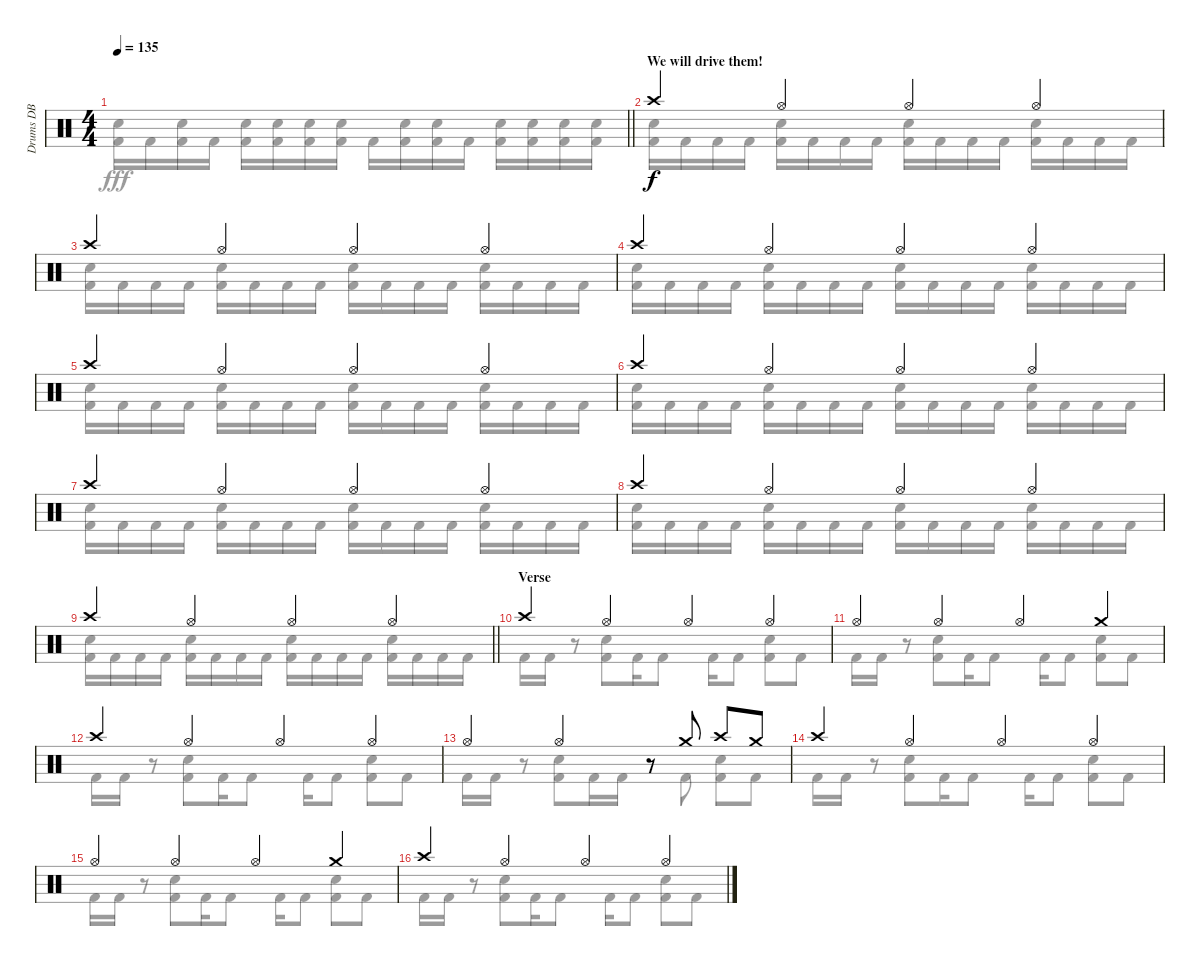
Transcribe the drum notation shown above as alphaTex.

\track ("Drums DB" "Drums DB") {instrument percussion}
\staff {score}
\articulation defaults
\voice
\ts (4 4)
\tempo 135
\clef neutral
\barLineRight lightlight
\ks aminor
|
\section ("" "We will drive them!")
"Crash high (hit)".4 "Hi-Hat (open)".4 "Hi-Hat (open)".4 "Hi-Hat (open)".4 |
"Crash high (hit)".4 "Hi-Hat (open)".4 "Hi-Hat (open)".4 "Hi-Hat (open)".4 |
"Crash high (hit)".4 "Hi-Hat (open)".4 "Hi-Hat (open)".4 "Hi-Hat (open)".4 |
"Crash high (hit)".4 "Hi-Hat (open)".4 "Hi-Hat (open)".4 "Hi-Hat (open)".4 |
"Crash high (hit)".4 "Hi-Hat (open)".4 "Hi-Hat (open)".4 "Hi-Hat (open)".4 |
"Crash high (hit)".4 "Hi-Hat (open)".4 "Hi-Hat (open)".4 "Hi-Hat (open)".4 |
"Crash high (hit)".4 "Hi-Hat (open)".4 "Hi-Hat (open)".4 "Hi-Hat (open)".4 |
\barLineRight lightlight "Crash high (hit)".4 "Hi-Hat (open)".4 "Hi-Hat (open)".4 "Hi-Hat (open)".4
|
\section ("" "Verse")
"Crash high (hit)".4 "Hi-Hat (open)".4 "Hi-Hat (open)".4 "Hi-Hat (open)".4 |
"Hi-Hat (open)".4 "Hi-Hat (open)".4 "Hi-Hat (open)".4 "Crash medium (hit)".4 |
"Crash high (hit)".4 "Hi-Hat (open)".4 "Hi-Hat (open)".4 "Hi-Hat (open)".4 |
"Hi-Hat (open)".4 "Hi-Hat (open)".4 r.8 "Crash medium (hit)".8 "Crash high (hit)".8 "Crash medium (hit)".8 |
"Crash high (hit)".4 "Hi-Hat (open)".4 "Hi-Hat (open)".4 "Hi-Hat (open)".4 |
"Hi-Hat (open)".4 "Hi-Hat (open)".4 "Hi-Hat (open)".4 "Crash medium (hit)".4 |
"Crash high (hit)".4 "Hi-Hat (open)".4 "Hi-Hat (open)".4 "Hi-Hat (open)".4
\voice
\clef neutral
\ottava regular
\simile none
\barLineRight lightlight
\ks aminor
("Snare (hit) 2" "Kick (hit) 2").16{dy fff} "Kick (hit) 2".16 ("Snare (hit) 2" "Kick (hit) 2").16 "Kick (hit) 2".16 ("Snare (hit) 2" "Kick (hit) 2").16 ("Snare (hit) 2" "Kick (hit) 2").16 ("Snare (hit) 2" "Kick (hit) 2").16 ("Snare (hit) 2" "Kick (hit) 2").16 "Kick (hit) 2".16 ("Snare (hit) 2" "Kick (hit) 2").16 ("Snare (hit) 2" "Kick (hit) 2").16 "Kick (hit) 2".16 ("Snare (hit) 2" "Kick (hit) 2").16 ("Snare (hit) 2" "Kick (hit) 2").16 ("Snare (hit) 2" "Kick (hit) 2").16 ("Snare (hit) 2" "Kick (hit) 2").16 |
("Snare (hit) 2" "Kick (hit) 2").16 "Kick (hit) 2".16 "Kick (hit) 2".16 "Kick (hit) 2".16 ("Snare (hit) 2" "Kick (hit) 2").16 "Kick (hit) 2".16 "Kick (hit) 2".16 "Kick (hit) 2".16 ("Snare (hit) 2" "Kick (hit) 2").16 "Kick (hit) 2".16 "Kick (hit) 2".16 "Kick (hit) 2".16 ("Snare (hit) 2" "Kick (hit) 2").16 "Kick (hit) 2".16 "Kick (hit) 2".16 "Kick (hit) 2".16 |
("Snare (hit) 2" "Kick (hit) 2").16 "Kick (hit) 2".16 "Kick (hit) 2".16 "Kick (hit) 2".16 ("Snare (hit) 2" "Kick (hit) 2").16 "Kick (hit) 2".16 "Kick (hit) 2".16 "Kick (hit) 2".16 ("Snare (hit) 2" "Kick (hit) 2").16 "Kick (hit) 2".16 "Kick (hit) 2".16 "Kick (hit) 2".16 ("Snare (hit) 2" "Kick (hit) 2").16 "Kick (hit) 2".16 "Kick (hit) 2".16 "Kick (hit) 2".16 |
("Snare (hit) 2" "Kick (hit) 2").16 "Kick (hit) 2".16 "Kick (hit) 2".16 "Kick (hit) 2".16 ("Snare (hit) 2" "Kick (hit) 2").16 "Kick (hit) 2".16 "Kick (hit) 2".16 "Kick (hit) 2".16 ("Snare (hit) 2" "Kick (hit) 2").16 "Kick (hit) 2".16 "Kick (hit) 2".16 "Kick (hit) 2".16 ("Snare (hit) 2" "Kick (hit) 2").16 "Kick (hit) 2".16 "Kick (hit) 2".16 "Kick (hit) 2".16 |
("Snare (hit) 2" "Kick (hit) 2").16 "Kick (hit) 2".16 "Kick (hit) 2".16 "Kick (hit) 2".16 ("Snare (hit) 2" "Kick (hit) 2").16 "Kick (hit) 2".16 "Kick (hit) 2".16 "Kick (hit) 2".16 ("Snare (hit) 2" "Kick (hit) 2").16 "Kick (hit) 2".16 "Kick (hit) 2".16 "Kick (hit) 2".16 ("Snare (hit) 2" "Kick (hit) 2").16 "Kick (hit) 2".16 "Kick (hit) 2".16 "Kick (hit) 2".16 |
("Snare (hit) 2" "Kick (hit) 2").16 "Kick (hit) 2".16 "Kick (hit) 2".16 "Kick (hit) 2".16 ("Snare (hit) 2" "Kick (hit) 2").16 "Kick (hit) 2".16 "Kick (hit) 2".16 "Kick (hit) 2".16 ("Snare (hit) 2" "Kick (hit) 2").16 "Kick (hit) 2".16 "Kick (hit) 2".16 "Kick (hit) 2".16 ("Snare (hit) 2" "Kick (hit) 2").16 "Kick (hit) 2".16 "Kick (hit) 2".16 "Kick (hit) 2".16 |
("Snare (hit) 2" "Kick (hit) 2").16 "Kick (hit) 2".16 "Kick (hit) 2".16 "Kick (hit) 2".16 ("Snare (hit) 2" "Kick (hit) 2").16 "Kick (hit) 2".16 "Kick (hit) 2".16 "Kick (hit) 2".16 ("Snare (hit) 2" "Kick (hit) 2").16 "Kick (hit) 2".16 "Kick (hit) 2".16 "Kick (hit) 2".16 ("Snare (hit) 2" "Kick (hit) 2").16 "Kick (hit) 2".16 "Kick (hit) 2".16 "Kick (hit) 2".16 |
("Snare (hit) 2" "Kick (hit) 2").16 "Kick (hit) 2".16 "Kick (hit) 2".16 "Kick (hit) 2".16 ("Snare (hit) 2" "Kick (hit) 2").16 "Kick (hit) 2".16 "Kick (hit) 2".16 "Kick (hit) 2".16 ("Snare (hit) 2" "Kick (hit) 2").16 "Kick (hit) 2".16 "Kick (hit) 2".16 "Kick (hit) 2".16 ("Snare (hit) 2" "Kick (hit) 2").16 "Kick (hit) 2".16 "Kick (hit) 2".16 "Kick (hit) 2".16 |
\barLineRight lightlight
("Snare (hit) 2" "Kick (hit) 2").16 "Kick (hit) 2".16 "Kick (hit) 2".16 "Kick (hit) 2".16 ("Snare (hit) 2" "Kick (hit) 2").16 "Kick (hit) 2".16 "Kick (hit) 2".16 "Kick (hit) 2".16 ("Snare (hit) 2" "Kick (hit) 2").16 "Kick (hit) 2".16 "Kick (hit) 2".16 "Kick (hit) 2".16 ("Snare (hit) 2" "Kick (hit) 2").16 "Kick (hit) 2".16 "Kick (hit) 2".16 "Kick (hit) 2".16 |
"Kick (hit) 2".16 "Kick (hit) 2".16 r.8 ("Snare (hit) 2" "Kick (hit) 2").8 "Kick (hit) 2".16 "Kick (hit) 2".8 "Kick (hit) 2".16 "Kick (hit) 2".8 ("Snare (hit) 2" "Kick (hit) 2").8 "Kick (hit) 2".8 |
"Kick (hit) 2".16 "Kick (hit) 2".16 r.8 ("Snare (hit) 2" "Kick (hit) 2").8 "Kick (hit) 2".16 "Kick (hit) 2".8 "Kick (hit) 2".16 "Kick (hit) 2".8 ("Snare (hit) 2" "Kick (hit) 2").8 "Kick (hit) 2".8 |
"Kick (hit) 2".16 "Kick (hit) 2".16 r.8 ("Snare (hit) 2" "Kick (hit) 2").8 "Kick (hit) 2".16 "Kick (hit) 2".8 "Kick (hit) 2".16 "Kick (hit) 2".8 ("Snare (hit) 2" "Kick (hit) 2").8 "Kick (hit) 2".8 |
"Kick (hit) 2".16 "Kick (hit) 2".16 r.8 ("Snare (hit) 2" "Kick (hit) 2").8 "Kick (hit) 2".16 "Kick (hit) 2".16 r.8 "Kick (hit) 2".8 ("Snare (hit) 2" "Kick (hit) 2").8 "Kick (hit) 2".8 |
"Kick (hit) 2".16 "Kick (hit) 2".16 r.8 ("Snare (hit) 2" "Kick (hit) 2").8 "Kick (hit) 2".16 "Kick (hit) 2".8 "Kick (hit) 2".16 "Kick (hit) 2".8 ("Snare (hit) 2" "Kick (hit) 2").8 "Kick (hit) 2".8 |
"Kick (hit) 2".16 "Kick (hit) 2".16 r.8 ("Snare (hit) 2" "Kick (hit) 2").8 "Kick (hit) 2".16 "Kick (hit) 2".8 "Kick (hit) 2".16 "Kick (hit) 2".8 ("Snare (hit) 2" "Kick (hit) 2").8 "Kick (hit) 2".8 |
"Kick (hit) 2".16 "Kick (hit) 2".16 r.8 ("Snare (hit) 2" "Kick (hit) 2").8 "Kick (hit) 2".16 "Kick (hit) 2".8 "Kick (hit) 2".16 "Kick (hit) 2".8 ("Snare (hit) 2" "Kick (hit) 2").8 "Kick (hit) 2".8
